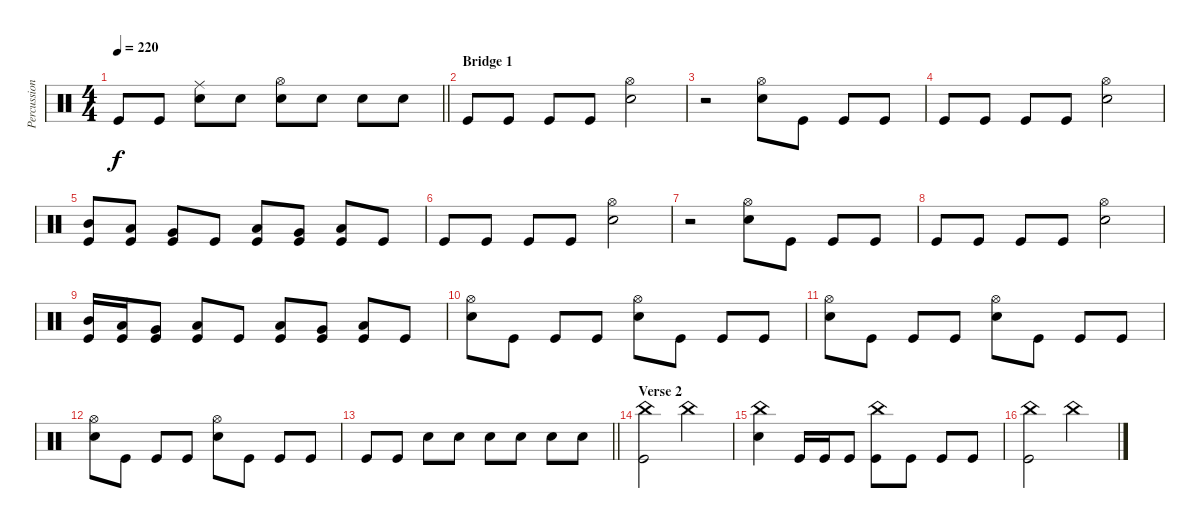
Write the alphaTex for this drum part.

\track ("Percussion" "Percussion") {instrument percussion}
\staff {score}
\articulation defaults
\ts (4 4)
\tempo 220
\clef neutral
\barLineRight lightlight
\ks c "Kick (hit)".8{dy f} "Kick (hit)".8
("Snare (hit) 2" "Ride (middle)").8 "Snare (hit) 2".8 ("Snare (hit) 2" "Hi-Hat (open)").8 "Snare (hit) 2".8 "Snare (hit) 2".8 "Snare (hit) 2".8 |
\section ("" "Bridge 1")
"Kick (hit)".8 "Kick (hit)".8 "Kick (hit)".8 "Kick (hit)".8 ("Snare (hit) 2" "Hi-Hat (open)").2 |
r.2 ("Snare (hit) 2" "Hi-Hat (open)").8 "Kick (hit)".8 "Kick (hit)".8 "Kick (hit)".8 |
"Kick (hit)".8 "Kick (hit)".8 "Kick (hit)".8 "Kick (hit)".8 ("Snare (hit) 2" "Hi-Hat (open)").2 |
("Kick (hit)" "Mid Tom (hit)").8 ("Kick (hit)" "Low Tom (hit)").8 ("Kick (hit)" "Very Low Tom (hit)").8 "Kick (hit)".8 ("Kick (hit)" "Low Tom (hit)").8 ("Kick (hit)" "Very Low Tom (hit)").8 ("Kick (hit)" "Low Floor Tom (hit)").8 "Kick (hit)".8 |
"Kick (hit)".8 "Kick (hit)".8 "Kick (hit)".8 "Kick (hit)".8 ("Snare (hit) 2" "Hi-Hat (open)").2 |
r.2 ("Snare (hit) 2" "Hi-Hat (open)").8 "Kick (hit)".8 "Kick (hit)".8 "Kick (hit)".8 |
"Kick (hit)".8 "Kick (hit)".8 "Kick (hit)".8 "Kick (hit)".8 ("Snare (hit) 2" "Hi-Hat (open)").2 |
("Kick (hit)" "Mid Tom (hit)").16 ("Kick (hit)" "Low Tom (hit)").16 ("Kick (hit)" "Very Low Tom (hit)").8 ("Kick (hit)" "Low Floor Tom (hit)").8 "Kick (hit)".8 ("Kick (hit)" "Low Tom (hit)").8 ("Kick (hit)" "Very Low Tom (hit)").8 ("Kick (hit)" "Low Floor Tom (hit)").8 "Kick (hit)".8 |
("Snare (hit) 2" "Hi-Hat (open)").8 "Kick (hit)".8 "Kick (hit)".8 "Kick (hit)".8 ("Snare (hit) 2" "Hi-Hat (open)").8 "Kick (hit)".8 "Kick (hit)".8 "Kick (hit)".8 |
("Snare (hit) 2" "Hi-Hat (open)").8 "Kick (hit)".8 "Kick (hit)".8 "Kick (hit)".8 ("Snare (hit) 2" "Hi-Hat (open)").8 "Kick (hit)".8 "Kick (hit)".8 "Kick (hit)".8 |
("Snare (hit) 2" "Hi-Hat (open)").8 "Kick (hit)".8 "Kick (hit)".8 "Kick (hit)".8 ("Snare (hit) 2" "Hi-Hat (open)").8 "Kick (hit)".8 "Kick (hit)".8 "Kick (hit)".8 |
\barLineRight lightlight "Kick (hit)".8 "Kick (hit)".8 "Snare (hit) 2".8 "Snare (hit) 2".8 "Snare (hit) 2".8 "Snare (hit) 2".8 "Snare (hit) 2".8 "Snare (hit) 2".8
|
\section ("" "Verse 2")
("Kick (hit)" "China (hit)").2 "China (hit)".2 |
("Snare (hit) 2" "China (hit)").4 "Kick (hit)".16 "Kick (hit)".16 "Kick (hit)".8 ("Kick (hit)" "China (hit)").8 "Kick (hit)".8 "Kick (hit)".8 "Kick (hit)".8 |
("Kick (hit)" "China (hit)").2 "China (hit)".2
